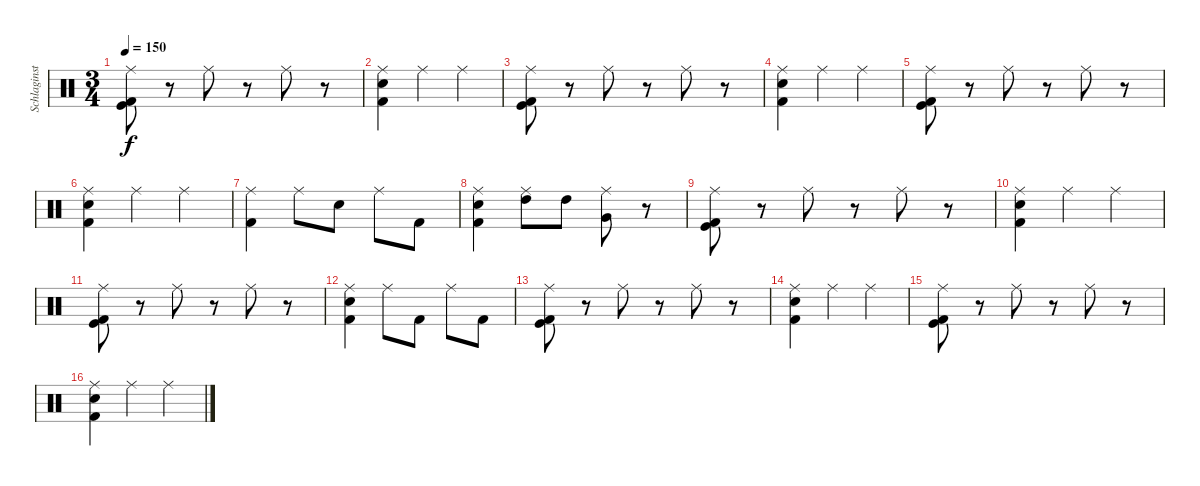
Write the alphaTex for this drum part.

\track ("Schlaginstrumente - Auswahl" "Schlaginst") {instrument percussion}
\staff {score}
\articulation defaults
\ts (3 4)
\tempo 150
\clef neutral
\ks c
("Ride (middle)" "Kick (hit)" "Kick (hit) 2").8{dy f} r.8 "Ride (middle)".8 r.8 "Ride (middle)".8 r.8 |
("Ride (middle)" "Electric Snare (hit)" "Kick (hit) 2").4 "Ride (middle)".4 "Ride (middle)".4 |
("Ride (middle)" "Kick (hit)" "Kick (hit) 2").8 r.8 "Ride (middle)".8 r.8 "Ride (middle)".8 r.8 |
("Ride (middle)" "Electric Snare (hit)" "Kick (hit) 2").4 "Ride (middle)".4 "Ride (middle)".4 |
("Ride (middle)" "Kick (hit)" "Kick (hit) 2").8 r.8 "Ride (middle)".8 r.8 "Ride (middle)".8 r.8 |
("Ride (middle)" "Electric Snare (hit)" "Kick (hit) 2").4 "Ride (middle)".4 "Ride (middle)".4 |
("Ride (middle)" "Kick (hit) 2").4 "Ride (middle)".8 "Electric Snare (hit)".8 "Ride (middle)".8 "Kick (hit) 2".8 |
("Ride (middle)" "Electric Snare (hit)" "Kick (hit) 2").4 ("Ride (middle)" "High Tom (hit)").8 "High Tom (hit)".8 ("Ride (middle)" "Very Low Tom (hit)").8 r.8 |
("Ride (middle)" "Kick (hit)" "Kick (hit) 2").8 r.8 "Ride (middle)".8 r.8 "Ride (middle)".8 r.8 |
("Ride (middle)" "Electric Snare (hit)" "Kick (hit) 2").4 "Ride (middle)".4 "Ride (middle)".4 |
("Ride (middle)" "Kick (hit)" "Kick (hit) 2").8 r.8 "Ride (middle)".8 r.8 "Ride (middle)".8 r.8 |
("Ride (middle)" "Electric Snare (hit)" "Kick (hit) 2").4 "Ride (middle)".8 "Kick (hit) 2".8 "Ride (middle)".8 "Kick (hit) 2".8 |
("Ride (middle)" "Kick (hit)" "Kick (hit) 2").8 r.8 "Ride (middle)".8 r.8 "Ride (middle)".8 r.8 |
("Ride (middle)" "Electric Snare (hit)" "Kick (hit) 2").4 "Ride (middle)".4 "Ride (middle)".4 |
("Ride (middle)" "Kick (hit)" "Kick (hit) 2").8 r.8 "Ride (middle)".8 r.8 "Ride (middle)".8 r.8 |
("Ride (middle)" "Electric Snare (hit)" "Kick (hit) 2").4 "Ride (middle)".4 "Ride (middle)".4
